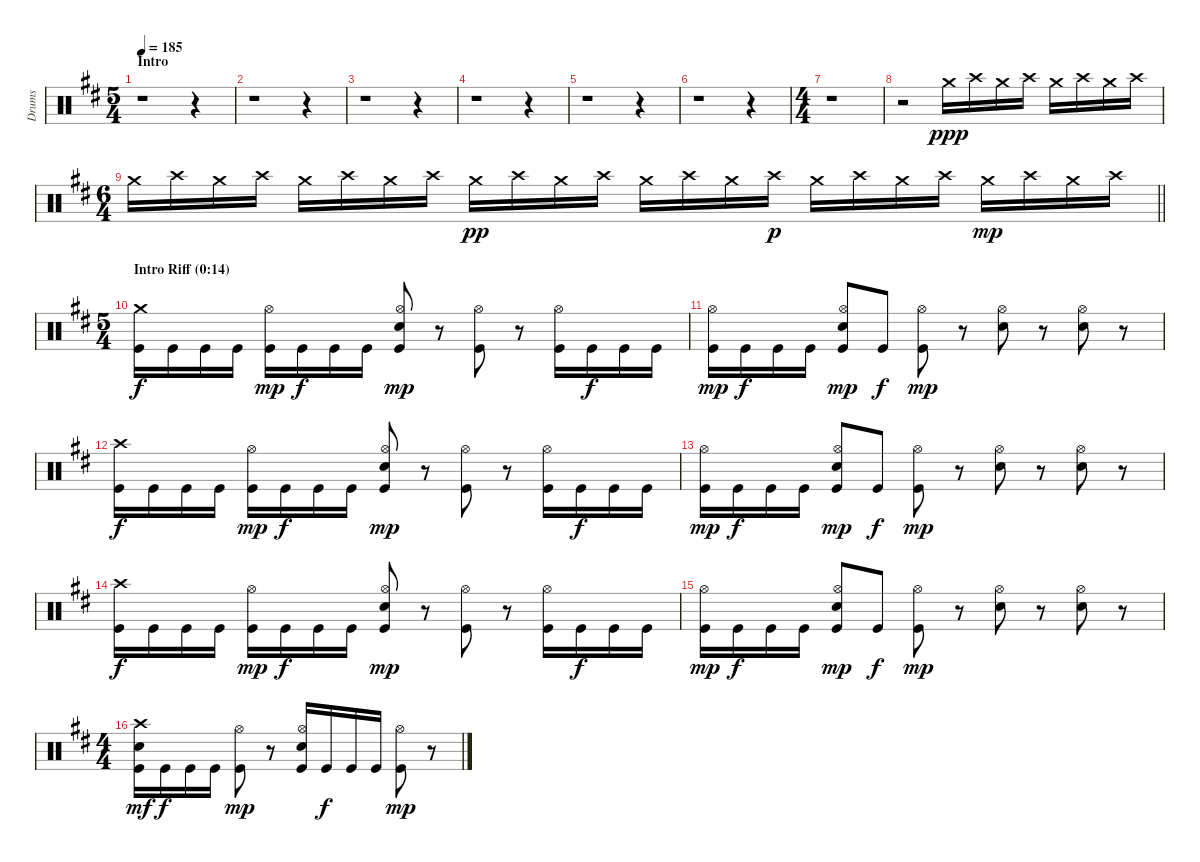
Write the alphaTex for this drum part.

\track ("Drums" "Drums") {instrument percussion}
\staff {score}
\articulation defaults
\ts (5 4)
\section ("" "Intro")
\tempo 185
\clef neutral
\ks bminor
r.1{dy ppp} r.4 |
r.1 r.4 |
r.1 r.4 |
r.1 r.4 |
r.1 r.4 |
r.1 r.4 |
\ts (4 4)
r.1 |
r.2 "Crash medium (hit)".16 "Crash high (hit)".16 "Crash medium (hit)".16 "Crash high (hit)".16 "Crash medium (hit)".16 "Crash high (hit)".16 "Crash medium (hit)".16 "Crash high (hit)".16 |
\ts (6 4)
\barLineRight lightlight "Crash medium (hit)".16 "Crash high (hit)".16 "Crash medium (hit)".16 "Crash high (hit)".16 "Crash medium (hit)".16 "Crash high (hit)".16 "Crash medium (hit)".16 "Crash high (hit)".16 "Crash medium (hit)".16{dy pp} "Crash high (hit)".16 "Crash medium (hit)".16 "Crash high (hit)".16 "Crash medium (hit)".16 "Crash high (hit)".16 "Crash medium (hit)".16 "Crash high (hit)".16{dy p} "Crash medium (hit)".16 "Crash high (hit)".16 "Crash medium (hit)".16 "Crash high (hit)".16 "Crash medium (hit)".16{dy mp} "Crash high (hit)".16 "Crash medium (hit)".16 "Crash high (hit)".16
|
\ts (5 4)
\section ("" "Intro Riff (0:14)")
("Crash medium (hit)" "Kick (hit)").16{dy f} "Kick (hit)".16 "Kick (hit)".16 "Kick (hit)".16 ("Hi-Hat (open)" "Kick (hit)").16{dy mp} "Kick (hit)".16{dy f} "Kick (hit)".16 "Kick (hit)".16 ("Hi-Hat (open)" "Snare (hit) 2" "Kick (hit)").8{dy mp} r.8 ("Hi-Hat (open)" "Kick (hit)").8 r.8 ("Hi-Hat (open)" "Kick (hit)").16 "Kick (hit)".16{dy f} "Kick (hit)".16 "Kick (hit)".16 |
("Hi-Hat (open)" "Kick (hit)").16{dy mp} "Kick (hit)".16{dy f} "Kick (hit)".16 "Kick (hit)".16 ("Hi-Hat (open)" "Snare (hit) 2" "Kick (hit)").8{dy mp} "Kick (hit)".8{dy f} ("Hi-Hat (open)" "Kick (hit)").8{dy mp} r.8 ("Hi-Hat (open)" "Snare (hit) 2").8 r.8 ("Hi-Hat (open)" "Snare (hit) 2").8 r.8 |
("Crash high (hit)" "Kick (hit)").16{dy f} "Kick (hit)".16 "Kick (hit)".16 "Kick (hit)".16 ("Hi-Hat (open)" "Kick (hit)").16{dy mp} "Kick (hit)".16{dy f} "Kick (hit)".16 "Kick (hit)".16 ("Hi-Hat (open)" "Snare (hit) 2" "Kick (hit)").8{dy mp} r.8 ("Hi-Hat (open)" "Kick (hit)").8 r.8 ("Hi-Hat (open)" "Kick (hit)").16 "Kick (hit)".16{dy f} "Kick (hit)".16 "Kick (hit)".16 |
("Hi-Hat (open)" "Kick (hit)").16{dy mp} "Kick (hit)".16{dy f} "Kick (hit)".16 "Kick (hit)".16 ("Hi-Hat (open)" "Snare (hit) 2" "Kick (hit)").8{dy mp} "Kick (hit)".8{dy f} ("Hi-Hat (open)" "Kick (hit)").8{dy mp} r.8 ("Hi-Hat (open)" "Snare (hit) 2").8 r.8 ("Hi-Hat (open)" "Snare (hit) 2").8 r.8 |
("Crash high (hit)" "Kick (hit)").16{dy f} "Kick (hit)".16 "Kick (hit)".16 "Kick (hit)".16 ("Hi-Hat (open)" "Kick (hit)").16{dy mp} "Kick (hit)".16{dy f} "Kick (hit)".16 "Kick (hit)".16 ("Hi-Hat (open)" "Snare (hit) 2" "Kick (hit)").8{dy mp} r.8 ("Hi-Hat (open)" "Kick (hit)").8 r.8 ("Hi-Hat (open)" "Kick (hit)").16 "Kick (hit)".16{dy f} "Kick (hit)".16 "Kick (hit)".16 |
("Hi-Hat (open)" "Kick (hit)").16{dy mp} "Kick (hit)".16{dy f} "Kick (hit)".16 "Kick (hit)".16 ("Hi-Hat (open)" "Snare (hit) 2" "Kick (hit)").8{dy mp} "Kick (hit)".8{dy f} ("Hi-Hat (open)" "Kick (hit)").8{dy mp} r.8 ("Hi-Hat (open)" "Snare (hit) 2").8 r.8 ("Hi-Hat (open)" "Snare (hit) 2").8 r.8 |
\ts (4 4)
("Crash high (hit)" "Snare (hit) 2" "Kick (hit)").16{dy mf} "Kick (hit)".16{dy f} "Kick (hit)".16 "Kick (hit)".16 ("Hi-Hat (open)" "Kick (hit)").8{dy mp} r.8 ("Hi-Hat (open)" "Snare (hit) 2" "Kick (hit)").16 "Kick (hit)".16{dy f} "Kick (hit)".16 "Kick (hit)".16 ("Hi-Hat (open)" "Kick (hit)").8{dy mp} r.8
